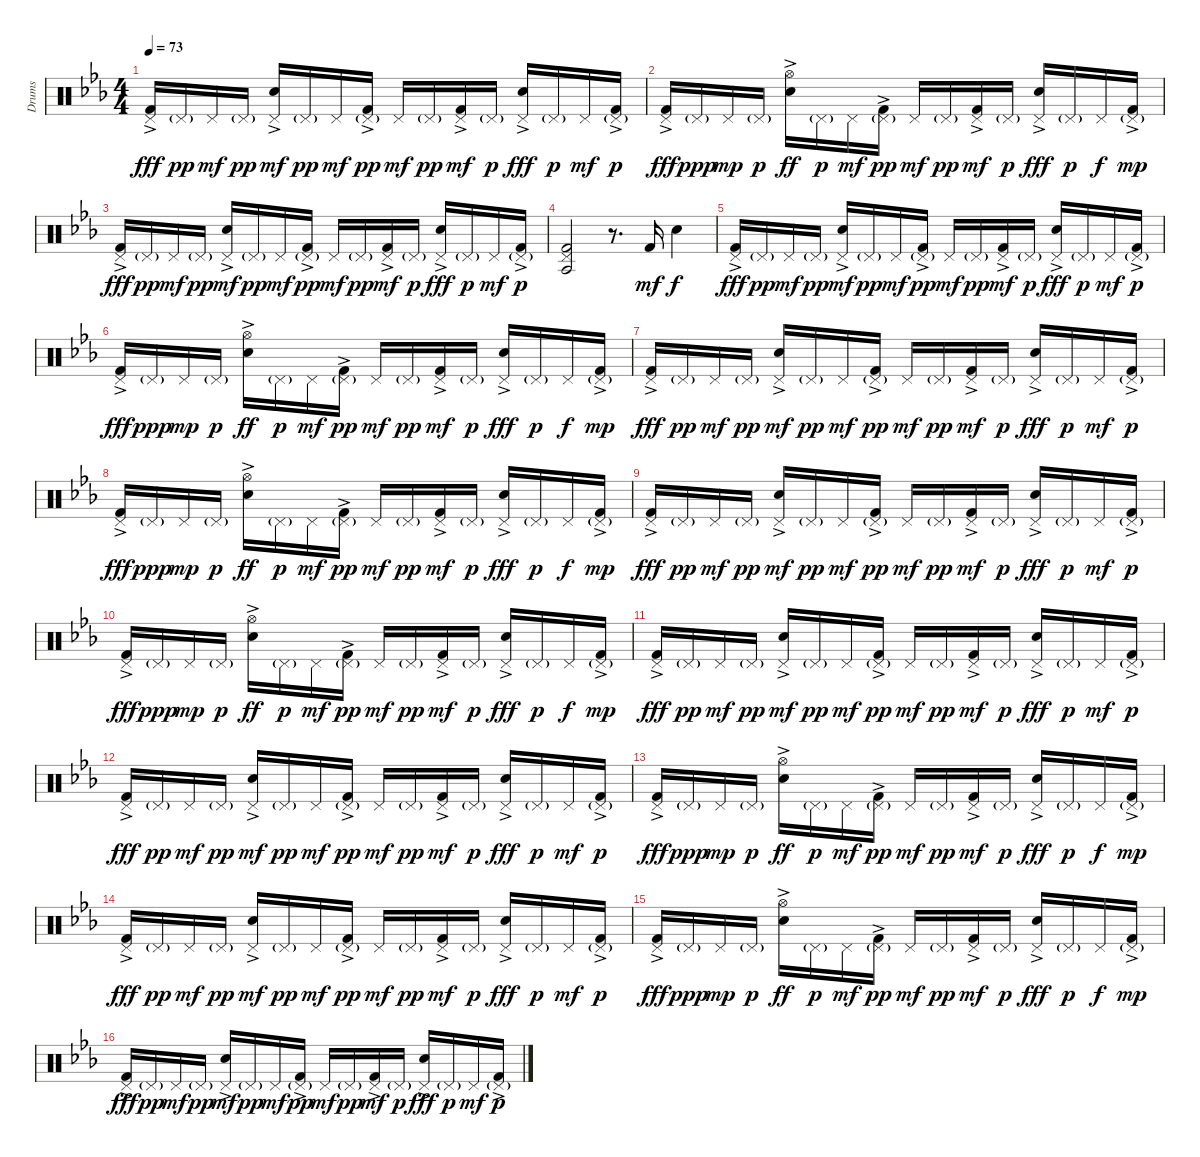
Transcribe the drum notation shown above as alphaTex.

\track ("Drums" "Drums") {instrument percussion}
\staff {score}
\articulation defaults
\ts (4 4)
\tempo 73
\clef neutral
\ks eb
("Kick (hit) 2"{ac} "Pedal Hi-Hat (hit)").16{dy fff} "Pedal Hi-Hat (hit)"{g}.16{dy pp} "Pedal Hi-Hat (hit)".16{dy mf} "Pedal Hi-Hat (hit)"{g}.16{dy pp} ("Snare (hit) 2"{ac} "Pedal Hi-Hat (hit)").16{dy mf} "Pedal Hi-Hat (hit)"{g}.16{dy pp} "Pedal Hi-Hat (hit)".16{dy mf} ("Kick (hit) 2"{ac} "Pedal Hi-Hat (hit)"{g}).16{dy pp} "Pedal Hi-Hat (hit)".16{dy mf} "Pedal Hi-Hat (hit)"{g}.16{dy pp} ("Kick (hit) 2"{ac} "Pedal Hi-Hat (hit)").16{dy mf} "Pedal Hi-Hat (hit)"{g}.16{dy p} ("Snare (hit) 2"{ac} "Pedal Hi-Hat (hit)").16{dy fff} "Pedal Hi-Hat (hit)"{g}.16{dy p} "Pedal Hi-Hat (hit)".16{dy mf} ("Kick (hit) 2"{ac} "Pedal Hi-Hat (hit)"{g}).16{dy p} |
("Kick (hit) 2"{ac} "Pedal Hi-Hat (hit)").16{dy fff} "Pedal Hi-Hat (hit)"{g}.16{dy ppp} "Pedal Hi-Hat (hit)".16{dy mp} "Pedal Hi-Hat (hit)"{g}.16{dy p} ("Snare (hit) 2"{ac} "Hi-Hat (open)").16{dy ff} "Pedal Hi-Hat (hit)"{g}.16{dy p} "Pedal Hi-Hat (hit)".16{dy mf} ("Kick (hit) 2"{ac} "Pedal Hi-Hat (hit)"{g}).16{dy pp} "Pedal Hi-Hat (hit)".16{dy mf} "Pedal Hi-Hat (hit)"{g}.16{dy pp} ("Kick (hit) 2"{ac} "Pedal Hi-Hat (hit)").16{dy mf} "Pedal Hi-Hat (hit)"{g}.16{dy p} ("Snare (hit) 2"{ac} "Pedal Hi-Hat (hit)").16{dy fff} "Pedal Hi-Hat (hit)"{g}.16{dy p} "Pedal Hi-Hat (hit)".16{dy f} ("Kick (hit) 2"{ac} "Pedal Hi-Hat (hit)"{g}).16{dy mp} |
("Kick (hit) 2"{ac} "Pedal Hi-Hat (hit)").16{dy fff} "Pedal Hi-Hat (hit)"{g}.16{dy pp} "Pedal Hi-Hat (hit)".16{dy mf} "Pedal Hi-Hat (hit)"{g}.16{dy pp} ("Snare (hit) 2"{ac} "Pedal Hi-Hat (hit)").16{dy mf} "Pedal Hi-Hat (hit)"{g}.16{dy pp} "Pedal Hi-Hat (hit)".16{dy mf} ("Kick (hit) 2"{ac} "Pedal Hi-Hat (hit)"{g}).16{dy pp} "Pedal Hi-Hat (hit)".16{dy mf} "Pedal Hi-Hat (hit)"{g}.16{dy pp} ("Kick (hit) 2"{ac} "Pedal Hi-Hat (hit)").16{dy mf} "Pedal Hi-Hat (hit)"{g}.16{dy p} ("Snare (hit) 2"{ac} "Pedal Hi-Hat (hit)").16{dy fff} "Pedal Hi-Hat (hit)"{g}.16{dy p} "Pedal Hi-Hat (hit)".16{dy mf} ("Kick (hit) 2"{ac} "Pedal Hi-Hat (hit)"{g}).16{dy p} |
("Kick (hit) 2" "Pedal Hi-Hat (hit)" "Agogo tow (hit)").2 r.8{d} "Kick (hit) 2".16{dy mf} "Snare (hit) 2".4{dy f} |
("Kick (hit) 2"{ac} "Pedal Hi-Hat (hit)").16{dy fff} "Pedal Hi-Hat (hit)"{g}.16{dy pp} "Pedal Hi-Hat (hit)".16{dy mf} "Pedal Hi-Hat (hit)"{g}.16{dy pp} ("Snare (hit) 2"{ac} "Pedal Hi-Hat (hit)").16{dy mf} "Pedal Hi-Hat (hit)"{g}.16{dy pp} "Pedal Hi-Hat (hit)".16{dy mf} ("Kick (hit) 2"{ac} "Pedal Hi-Hat (hit)"{g}).16{dy pp} "Pedal Hi-Hat (hit)".16{dy mf} "Pedal Hi-Hat (hit)"{g}.16{dy pp} ("Kick (hit) 2"{ac} "Pedal Hi-Hat (hit)").16{dy mf} "Pedal Hi-Hat (hit)"{g}.16{dy p} ("Snare (hit) 2"{ac} "Pedal Hi-Hat (hit)").16{dy fff} "Pedal Hi-Hat (hit)"{g}.16{dy p} "Pedal Hi-Hat (hit)".16{dy mf} ("Kick (hit) 2"{ac} "Pedal Hi-Hat (hit)"{g}).16{dy p} |
("Kick (hit) 2"{ac} "Pedal Hi-Hat (hit)").16{dy fff} "Pedal Hi-Hat (hit)"{g}.16{dy ppp} "Pedal Hi-Hat (hit)".16{dy mp} "Pedal Hi-Hat (hit)"{g}.16{dy p} ("Snare (hit) 2"{ac} "Hi-Hat (open)").16{dy ff} "Pedal Hi-Hat (hit)"{g}.16{dy p} "Pedal Hi-Hat (hit)".16{dy mf} ("Kick (hit) 2"{ac} "Pedal Hi-Hat (hit)"{g}).16{dy pp} "Pedal Hi-Hat (hit)".16{dy mf} "Pedal Hi-Hat (hit)"{g}.16{dy pp} ("Kick (hit) 2"{ac} "Pedal Hi-Hat (hit)").16{dy mf} "Pedal Hi-Hat (hit)"{g}.16{dy p} ("Snare (hit) 2"{ac} "Pedal Hi-Hat (hit)").16{dy fff} "Pedal Hi-Hat (hit)"{g}.16{dy p} "Pedal Hi-Hat (hit)".16{dy f} ("Kick (hit) 2"{ac} "Pedal Hi-Hat (hit)"{g}).16{dy mp} |
("Kick (hit) 2"{ac} "Pedal Hi-Hat (hit)").16{dy fff} "Pedal Hi-Hat (hit)"{g}.16{dy pp} "Pedal Hi-Hat (hit)".16{dy mf} "Pedal Hi-Hat (hit)"{g}.16{dy pp} ("Snare (hit) 2"{ac} "Pedal Hi-Hat (hit)").16{dy mf} "Pedal Hi-Hat (hit)"{g}.16{dy pp} "Pedal Hi-Hat (hit)".16{dy mf} ("Kick (hit) 2"{ac} "Pedal Hi-Hat (hit)"{g}).16{dy pp} "Pedal Hi-Hat (hit)".16{dy mf} "Pedal Hi-Hat (hit)"{g}.16{dy pp} ("Kick (hit) 2"{ac} "Pedal Hi-Hat (hit)").16{dy mf} "Pedal Hi-Hat (hit)"{g}.16{dy p} ("Snare (hit) 2"{ac} "Pedal Hi-Hat (hit)").16{dy fff} "Pedal Hi-Hat (hit)"{g}.16{dy p} "Pedal Hi-Hat (hit)".16{dy mf} ("Kick (hit) 2"{ac} "Pedal Hi-Hat (hit)"{g}).16{dy p} |
("Kick (hit) 2"{ac} "Pedal Hi-Hat (hit)").16{dy fff} "Pedal Hi-Hat (hit)"{g}.16{dy ppp} "Pedal Hi-Hat (hit)".16{dy mp} "Pedal Hi-Hat (hit)"{g}.16{dy p} ("Snare (hit) 2"{ac} "Hi-Hat (open)").16{dy ff} "Pedal Hi-Hat (hit)"{g}.16{dy p} "Pedal Hi-Hat (hit)".16{dy mf} ("Kick (hit) 2"{ac} "Pedal Hi-Hat (hit)"{g}).16{dy pp} "Pedal Hi-Hat (hit)".16{dy mf} "Pedal Hi-Hat (hit)"{g}.16{dy pp} ("Kick (hit) 2"{ac} "Pedal Hi-Hat (hit)").16{dy mf} "Pedal Hi-Hat (hit)"{g}.16{dy p} ("Snare (hit) 2"{ac} "Pedal Hi-Hat (hit)").16{dy fff} "Pedal Hi-Hat (hit)"{g}.16{dy p} "Pedal Hi-Hat (hit)".16{dy f} ("Kick (hit) 2"{ac} "Pedal Hi-Hat (hit)"{g}).16{dy mp} |
("Kick (hit) 2"{ac} "Pedal Hi-Hat (hit)").16{dy fff} "Pedal Hi-Hat (hit)"{g}.16{dy pp} "Pedal Hi-Hat (hit)".16{dy mf} "Pedal Hi-Hat (hit)"{g}.16{dy pp} ("Snare (hit) 2"{ac} "Pedal Hi-Hat (hit)").16{dy mf} "Pedal Hi-Hat (hit)"{g}.16{dy pp} "Pedal Hi-Hat (hit)".16{dy mf} ("Kick (hit) 2"{ac} "Pedal Hi-Hat (hit)"{g}).16{dy pp} "Pedal Hi-Hat (hit)".16{dy mf} "Pedal Hi-Hat (hit)"{g}.16{dy pp} ("Kick (hit) 2"{ac} "Pedal Hi-Hat (hit)").16{dy mf} "Pedal Hi-Hat (hit)"{g}.16{dy p} ("Snare (hit) 2"{ac} "Pedal Hi-Hat (hit)").16{dy fff} "Pedal Hi-Hat (hit)"{g}.16{dy p} "Pedal Hi-Hat (hit)".16{dy mf} ("Kick (hit) 2"{ac} "Pedal Hi-Hat (hit)"{g}).16{dy p} |
("Kick (hit) 2"{ac} "Pedal Hi-Hat (hit)").16{dy fff} "Pedal Hi-Hat (hit)"{g}.16{dy ppp} "Pedal Hi-Hat (hit)".16{dy mp} "Pedal Hi-Hat (hit)"{g}.16{dy p} ("Snare (hit) 2"{ac} "Hi-Hat (open)").16{dy ff} "Pedal Hi-Hat (hit)"{g}.16{dy p} "Pedal Hi-Hat (hit)".16{dy mf} ("Kick (hit) 2"{ac} "Pedal Hi-Hat (hit)"{g}).16{dy pp} "Pedal Hi-Hat (hit)".16{dy mf} "Pedal Hi-Hat (hit)"{g}.16{dy pp} ("Kick (hit) 2"{ac} "Pedal Hi-Hat (hit)").16{dy mf} "Pedal Hi-Hat (hit)"{g}.16{dy p} ("Snare (hit) 2"{ac} "Pedal Hi-Hat (hit)").16{dy fff} "Pedal Hi-Hat (hit)"{g}.16{dy p} "Pedal Hi-Hat (hit)".16{dy f} ("Kick (hit) 2"{ac} "Pedal Hi-Hat (hit)"{g}).16{dy mp} |
("Kick (hit) 2"{ac} "Pedal Hi-Hat (hit)").16{dy fff} "Pedal Hi-Hat (hit)"{g}.16{dy pp} "Pedal Hi-Hat (hit)".16{dy mf} "Pedal Hi-Hat (hit)"{g}.16{dy pp} ("Snare (hit) 2"{ac} "Pedal Hi-Hat (hit)").16{dy mf} "Pedal Hi-Hat (hit)"{g}.16{dy pp} "Pedal Hi-Hat (hit)".16{dy mf} ("Kick (hit) 2"{ac} "Pedal Hi-Hat (hit)"{g}).16{dy pp} "Pedal Hi-Hat (hit)".16{dy mf} "Pedal Hi-Hat (hit)"{g}.16{dy pp} ("Kick (hit) 2"{ac} "Pedal Hi-Hat (hit)").16{dy mf} "Pedal Hi-Hat (hit)"{g}.16{dy p} ("Snare (hit) 2"{ac} "Pedal Hi-Hat (hit)").16{dy fff} "Pedal Hi-Hat (hit)"{g}.16{dy p} "Pedal Hi-Hat (hit)".16{dy mf} ("Kick (hit) 2"{ac} "Pedal Hi-Hat (hit)"{g}).16{dy p} |
("Kick (hit) 2"{ac} "Pedal Hi-Hat (hit)").16{dy fff} "Pedal Hi-Hat (hit)"{g}.16{dy pp} "Pedal Hi-Hat (hit)".16{dy mf} "Pedal Hi-Hat (hit)"{g}.16{dy pp} ("Snare (hit) 2"{ac} "Pedal Hi-Hat (hit)").16{dy mf} "Pedal Hi-Hat (hit)"{g}.16{dy pp} "Pedal Hi-Hat (hit)".16{dy mf} ("Kick (hit) 2"{ac} "Pedal Hi-Hat (hit)"{g}).16{dy pp} "Pedal Hi-Hat (hit)".16{dy mf} "Pedal Hi-Hat (hit)"{g}.16{dy pp} ("Kick (hit) 2"{ac} "Pedal Hi-Hat (hit)").16{dy mf} "Pedal Hi-Hat (hit)"{g}.16{dy p} ("Snare (hit) 2"{ac} "Pedal Hi-Hat (hit)").16{dy fff} "Pedal Hi-Hat (hit)"{g}.16{dy p} "Pedal Hi-Hat (hit)".16{dy mf} ("Kick (hit) 2"{ac} "Pedal Hi-Hat (hit)"{g}).16{dy p} |
("Kick (hit) 2"{ac} "Pedal Hi-Hat (hit)").16{dy fff} "Pedal Hi-Hat (hit)"{g}.16{dy ppp} "Pedal Hi-Hat (hit)".16{dy mp} "Pedal Hi-Hat (hit)"{g}.16{dy p} ("Snare (hit) 2"{ac} "Hi-Hat (open)").16{dy ff} "Pedal Hi-Hat (hit)"{g}.16{dy p} "Pedal Hi-Hat (hit)".16{dy mf} ("Kick (hit) 2"{ac} "Pedal Hi-Hat (hit)"{g}).16{dy pp} "Pedal Hi-Hat (hit)".16{dy mf} "Pedal Hi-Hat (hit)"{g}.16{dy pp} ("Kick (hit) 2"{ac} "Pedal Hi-Hat (hit)").16{dy mf} "Pedal Hi-Hat (hit)"{g}.16{dy p} ("Snare (hit) 2"{ac} "Pedal Hi-Hat (hit)").16{dy fff} "Pedal Hi-Hat (hit)"{g}.16{dy p} "Pedal Hi-Hat (hit)".16{dy f} ("Kick (hit) 2"{ac} "Pedal Hi-Hat (hit)"{g}).16{dy mp} |
("Kick (hit) 2"{ac} "Pedal Hi-Hat (hit)").16{dy fff} "Pedal Hi-Hat (hit)"{g}.16{dy pp} "Pedal Hi-Hat (hit)".16{dy mf} "Pedal Hi-Hat (hit)"{g}.16{dy pp} ("Snare (hit) 2"{ac} "Pedal Hi-Hat (hit)").16{dy mf} "Pedal Hi-Hat (hit)"{g}.16{dy pp} "Pedal Hi-Hat (hit)".16{dy mf} ("Kick (hit) 2"{ac} "Pedal Hi-Hat (hit)"{g}).16{dy pp} "Pedal Hi-Hat (hit)".16{dy mf} "Pedal Hi-Hat (hit)"{g}.16{dy pp} ("Kick (hit) 2"{ac} "Pedal Hi-Hat (hit)").16{dy mf} "Pedal Hi-Hat (hit)"{g}.16{dy p} ("Snare (hit) 2"{ac} "Pedal Hi-Hat (hit)").16{dy fff} "Pedal Hi-Hat (hit)"{g}.16{dy p} "Pedal Hi-Hat (hit)".16{dy mf} ("Kick (hit) 2"{ac} "Pedal Hi-Hat (hit)"{g}).16{dy p} |
("Kick (hit) 2"{ac} "Pedal Hi-Hat (hit)").16{dy fff} "Pedal Hi-Hat (hit)"{g}.16{dy ppp} "Pedal Hi-Hat (hit)".16{dy mp} "Pedal Hi-Hat (hit)"{g}.16{dy p} ("Snare (hit) 2"{ac} "Hi-Hat (open)").16{dy ff} "Pedal Hi-Hat (hit)"{g}.16{dy p} "Pedal Hi-Hat (hit)".16{dy mf} ("Kick (hit) 2"{ac} "Pedal Hi-Hat (hit)"{g}).16{dy pp} "Pedal Hi-Hat (hit)".16{dy mf} "Pedal Hi-Hat (hit)"{g}.16{dy pp} ("Kick (hit) 2"{ac} "Pedal Hi-Hat (hit)").16{dy mf} "Pedal Hi-Hat (hit)"{g}.16{dy p} ("Snare (hit) 2"{ac} "Pedal Hi-Hat (hit)").16{dy fff} "Pedal Hi-Hat (hit)"{g}.16{dy p} "Pedal Hi-Hat (hit)".16{dy f} ("Kick (hit) 2"{ac} "Pedal Hi-Hat (hit)"{g}).16{dy mp} |
("Kick (hit) 2"{ac} "Pedal Hi-Hat (hit)").16{dy fff} "Pedal Hi-Hat (hit)"{g}.16{dy pp} "Pedal Hi-Hat (hit)".16{dy mf} "Pedal Hi-Hat (hit)"{g}.16{dy pp} ("Snare (hit) 2"{ac} "Pedal Hi-Hat (hit)").16{dy mf} "Pedal Hi-Hat (hit)"{g}.16{dy pp} "Pedal Hi-Hat (hit)".16{dy mf} ("Kick (hit) 2"{ac} "Pedal Hi-Hat (hit)"{g}).16{dy pp} "Pedal Hi-Hat (hit)".16{dy mf} "Pedal Hi-Hat (hit)"{g}.16{dy pp} ("Kick (hit) 2"{ac} "Pedal Hi-Hat (hit)").16{dy mf} "Pedal Hi-Hat (hit)"{g}.16{dy p} ("Snare (hit) 2"{ac} "Pedal Hi-Hat (hit)").16{dy fff} "Pedal Hi-Hat (hit)"{g}.16{dy p} "Pedal Hi-Hat (hit)".16{dy mf} ("Kick (hit) 2"{ac} "Pedal Hi-Hat (hit)"{g}).16{dy p}
